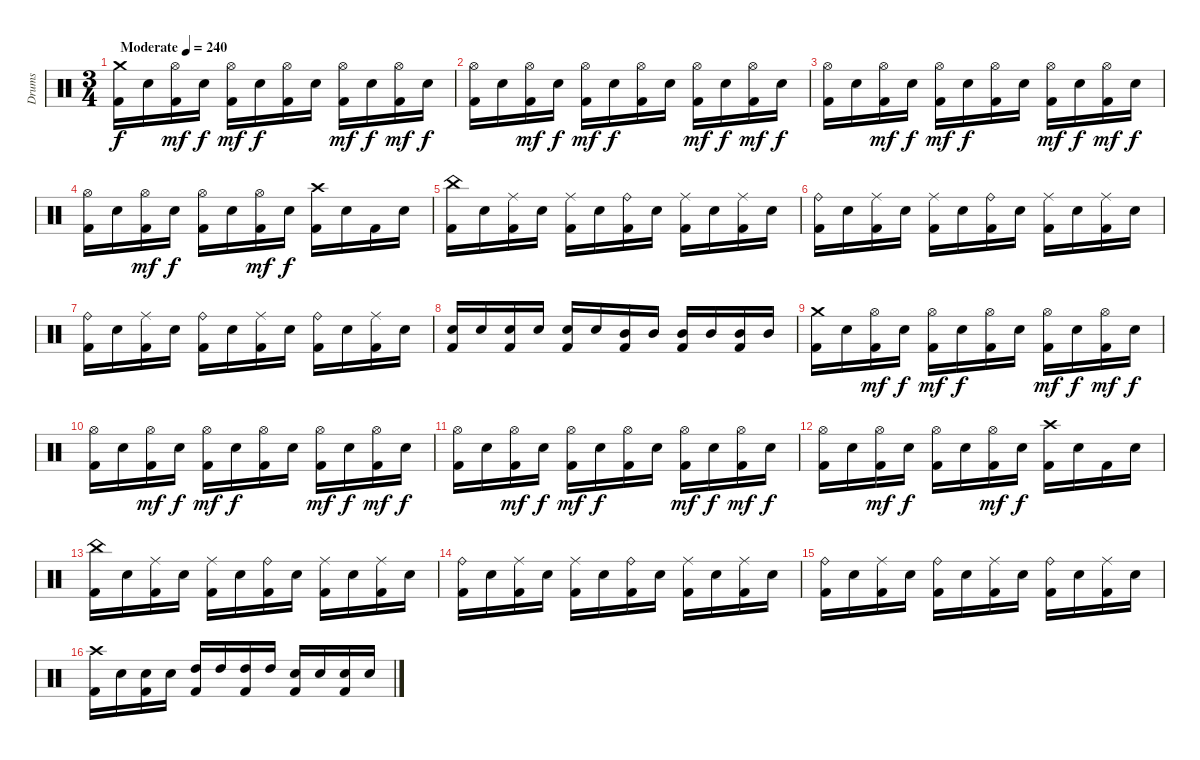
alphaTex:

\track ("Drums" "Drums") {instrument percussion}
\staff {score}
\articulation defaults
\ts (3 4)
\tempo (240 "Moderate")
\clef neutral
\ks c
("Crash medium (hit)" "Kick (hit) 2").16{dy f} "Electric Snare (hit)".16 ("Hi-Hat (open)" "Kick (hit) 2").16{dy mf} "Electric Snare (hit)".16{dy f} ("Hi-Hat (open)" "Kick (hit) 2").16{dy mf} "Electric Snare (hit)".16{dy f} ("Hi-Hat (open)" "Kick (hit) 2").16 "Electric Snare (hit)".16 ("Hi-Hat (open)" "Kick (hit) 2").16{dy mf} "Electric Snare (hit)".16{dy f} ("Hi-Hat (open)" "Kick (hit) 2").16{dy mf} "Electric Snare (hit)".16{dy f} |
("Hi-Hat (open)" "Kick (hit) 2").16 "Electric Snare (hit)".16 ("Hi-Hat (open)" "Kick (hit) 2").16{dy mf} "Electric Snare (hit)".16{dy f} ("Hi-Hat (open)" "Kick (hit) 2").16{dy mf} "Electric Snare (hit)".16{dy f} ("Hi-Hat (open)" "Kick (hit) 2").16 "Electric Snare (hit)".16 ("Hi-Hat (open)" "Kick (hit) 2").16{dy mf} "Electric Snare (hit)".16{dy f} ("Hi-Hat (open)" "Kick (hit) 2").16{dy mf} "Electric Snare (hit)".16{dy f} |
("Hi-Hat (open)" "Kick (hit) 2").16 "Electric Snare (hit)".16 ("Hi-Hat (open)" "Kick (hit) 2").16{dy mf} "Electric Snare (hit)".16{dy f} ("Hi-Hat (open)" "Kick (hit) 2").16{dy mf} "Electric Snare (hit)".16{dy f} ("Hi-Hat (open)" "Kick (hit) 2").16 "Electric Snare (hit)".16 ("Hi-Hat (open)" "Kick (hit) 2").16{dy mf} "Electric Snare (hit)".16{dy f} ("Hi-Hat (open)" "Kick (hit) 2").16{dy mf} "Electric Snare (hit)".16{dy f} |
("Hi-Hat (open)" "Kick (hit) 2").16 "Electric Snare (hit)".16 ("Hi-Hat (open)" "Kick (hit) 2").16{dy mf} "Electric Snare (hit)".16{dy f} ("Hi-Hat (open)" "Kick (hit) 2").16 "Electric Snare (hit)".16 ("Hi-Hat (open)" "Kick (hit) 2").16{dy mf} "Electric Snare (hit)".16{dy f} ("Crash high (hit)" "Kick (hit) 2").16 "Electric Snare (hit)".16 "Kick (hit) 2".16 "Electric Snare (hit)".16 |
("China (hit)" "Kick (hit) 2").16 "Electric Snare (hit)".16 ("Ride (middle)" "Kick (hit) 2").16 "Electric Snare (hit)".16 ("Ride (middle)" "Kick (hit) 2").16 "Electric Snare (hit)".16 ("Ride (bell)" "Kick (hit) 2").16 "Electric Snare (hit)".16 ("Ride (middle)" "Kick (hit) 2").16 "Electric Snare (hit)".16 ("Ride (middle)" "Kick (hit) 2").16 "Electric Snare (hit)".16 |
("Ride (bell)" "Kick (hit) 2").16 "Electric Snare (hit)".16 ("Ride (middle)" "Kick (hit) 2").16 "Electric Snare (hit)".16 ("Ride (middle)" "Kick (hit) 2").16 "Electric Snare (hit)".16 ("Ride (bell)" "Kick (hit) 2").16 "Electric Snare (hit)".16 ("Ride (middle)" "Kick (hit) 2").16 "Electric Snare (hit)".16 ("Ride (middle)" "Kick (hit) 2").16 "Electric Snare (hit)".16 |
("Ride (bell)" "Kick (hit) 2").16 "Electric Snare (hit)".16 ("Ride (middle)" "Kick (hit) 2").16 "Electric Snare (hit)".16 ("Ride (bell)" "Kick (hit) 2").16 "Electric Snare (hit)".16 ("Ride (middle)" "Kick (hit) 2").16 "Electric Snare (hit)".16 ("Ride (bell)" "Kick (hit) 2").16 "Electric Snare (hit)".16 ("Ride (middle)" "Kick (hit) 2").16 "Electric Snare (hit)".16 |
("Electric Snare (hit)" "Kick (hit) 2").16 "Electric Snare (hit)".16 ("Electric Snare (hit)" "Kick (hit) 2").16 "Electric Snare (hit)".16 ("Electric Snare (hit)" "Kick (hit) 2").16 "Electric Snare (hit)".16 ("Mid Tom (hit)" "Kick (hit) 2").16 "Mid Tom (hit)".16 ("Mid Tom (hit)" "Kick (hit) 2").16 "Mid Tom (hit)".16 ("Mid Tom (hit)" "Kick (hit) 2").16 "Mid Tom (hit)".16 |
("Crash medium (hit)" "Kick (hit) 2").16 "Electric Snare (hit)".16 ("Hi-Hat (open)" "Kick (hit) 2").16{dy mf} "Electric Snare (hit)".16{dy f} ("Hi-Hat (open)" "Kick (hit) 2").16{dy mf} "Electric Snare (hit)".16{dy f} ("Hi-Hat (open)" "Kick (hit) 2").16 "Electric Snare (hit)".16 ("Hi-Hat (open)" "Kick (hit) 2").16{dy mf} "Electric Snare (hit)".16{dy f} ("Hi-Hat (open)" "Kick (hit) 2").16{dy mf} "Electric Snare (hit)".16{dy f} |
("Hi-Hat (open)" "Kick (hit) 2").16 "Electric Snare (hit)".16 ("Hi-Hat (open)" "Kick (hit) 2").16{dy mf} "Electric Snare (hit)".16{dy f} ("Hi-Hat (open)" "Kick (hit) 2").16{dy mf} "Electric Snare (hit)".16{dy f} ("Hi-Hat (open)" "Kick (hit) 2").16 "Electric Snare (hit)".16 ("Hi-Hat (open)" "Kick (hit) 2").16{dy mf} "Electric Snare (hit)".16{dy f} ("Hi-Hat (open)" "Kick (hit) 2").16{dy mf} "Electric Snare (hit)".16{dy f} |
("Hi-Hat (open)" "Kick (hit) 2").16 "Electric Snare (hit)".16 ("Hi-Hat (open)" "Kick (hit) 2").16{dy mf} "Electric Snare (hit)".16{dy f} ("Hi-Hat (open)" "Kick (hit) 2").16{dy mf} "Electric Snare (hit)".16{dy f} ("Hi-Hat (open)" "Kick (hit) 2").16 "Electric Snare (hit)".16 ("Hi-Hat (open)" "Kick (hit) 2").16{dy mf} "Electric Snare (hit)".16{dy f} ("Hi-Hat (open)" "Kick (hit) 2").16{dy mf} "Electric Snare (hit)".16{dy f} |
("Hi-Hat (open)" "Kick (hit) 2").16 "Electric Snare (hit)".16 ("Hi-Hat (open)" "Kick (hit) 2").16{dy mf} "Electric Snare (hit)".16{dy f} ("Hi-Hat (open)" "Kick (hit) 2").16 "Electric Snare (hit)".16 ("Hi-Hat (open)" "Kick (hit) 2").16{dy mf} "Electric Snare (hit)".16{dy f} ("Crash high (hit)" "Kick (hit) 2").16 "Electric Snare (hit)".16 "Kick (hit) 2".16 "Electric Snare (hit)".16 |
("China (hit)" "Kick (hit) 2").16 "Electric Snare (hit)".16 ("Ride (middle)" "Kick (hit) 2").16 "Electric Snare (hit)".16 ("Ride (middle)" "Kick (hit) 2").16 "Electric Snare (hit)".16 ("Ride (bell)" "Kick (hit) 2").16 "Electric Snare (hit)".16 ("Ride (middle)" "Kick (hit) 2").16 "Electric Snare (hit)".16 ("Ride (middle)" "Kick (hit) 2").16 "Electric Snare (hit)".16 |
("Ride (bell)" "Kick (hit) 2").16 "Electric Snare (hit)".16 ("Ride (middle)" "Kick (hit) 2").16 "Electric Snare (hit)".16 ("Ride (middle)" "Kick (hit) 2").16 "Electric Snare (hit)".16 ("Ride (bell)" "Kick (hit) 2").16 "Electric Snare (hit)".16 ("Ride (middle)" "Kick (hit) 2").16 "Electric Snare (hit)".16 ("Ride (middle)" "Kick (hit) 2").16 "Electric Snare (hit)".16 |
("Ride (bell)" "Kick (hit) 2").16 "Electric Snare (hit)".16 ("Ride (middle)" "Kick (hit) 2").16 "Electric Snare (hit)".16 ("Ride (bell)" "Kick (hit) 2").16 "Electric Snare (hit)".16 ("Ride (middle)" "Kick (hit) 2").16 "Electric Snare (hit)".16 ("Ride (bell)" "Kick (hit) 2").16 "Electric Snare (hit)".16 ("Ride (middle)" "Kick (hit) 2").16 "Electric Snare (hit)".16 |
("Crash high (hit)" "Kick (hit) 2").16 "Electric Snare (hit)".16 ("Electric Snare (hit)" "Kick (hit) 2").16 "Electric Snare (hit)".16 ("High Tom (hit)" "Kick (hit) 2").16 "High Tom (hit)".16 ("High Tom (hit)" "Kick (hit) 2").16 "High Tom (hit)".16 ("Electric Snare (hit)" "Kick (hit) 2").16 "Electric Snare (hit)".16 ("Electric Snare (hit)" "Kick (hit) 2").16 "Electric Snare (hit)".16
